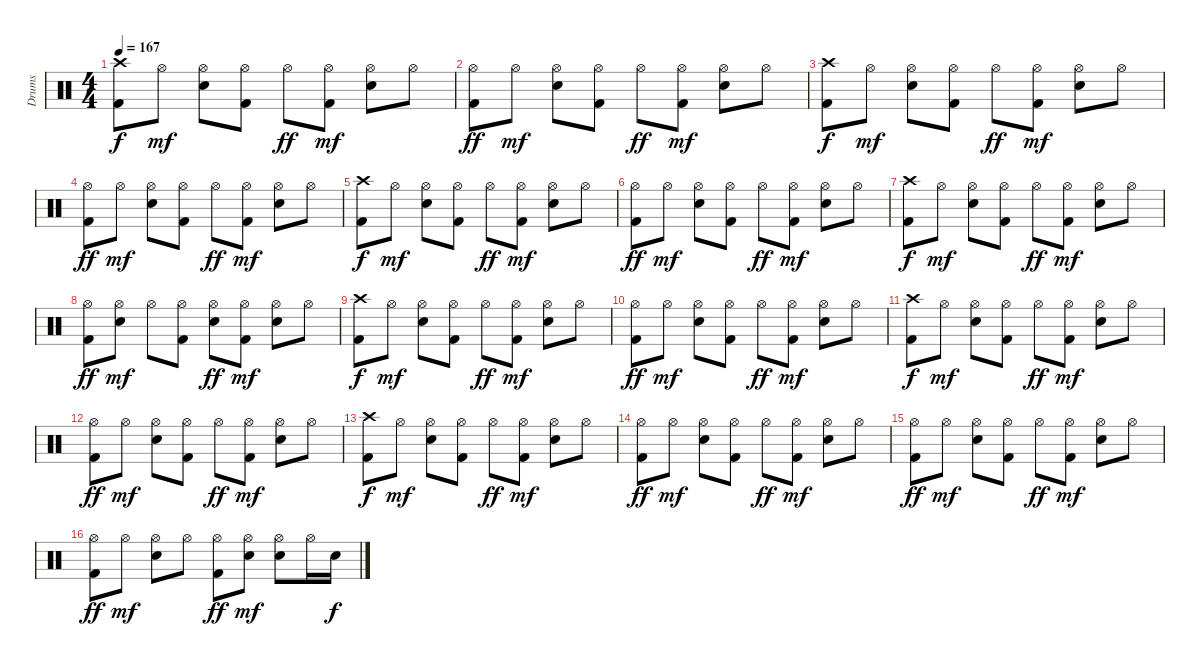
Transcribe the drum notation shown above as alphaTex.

\track ("Drums" "Drums") {instrument percussion}
\staff {score}
\articulation defaults
\ts (4 4)
\tempo 167
\clef neutral
\ks c
("Crash high (hit)" "Kick (hit) 2").8{dy f} "Hi-Hat (open)".8{dy mf} ("Hi-Hat (open)" "Electric Snare (hit)").8 ("Hi-Hat (open)" "Kick (hit) 2").8 "Hi-Hat (open)".8{dy ff} ("Hi-Hat (open)" "Kick (hit) 2").8{dy mf} ("Hi-Hat (open)" "Electric Snare (hit)").8 "Hi-Hat (open)".8 |
("Hi-Hat (open)" "Kick (hit) 2").8{dy ff} "Hi-Hat (open)".8{dy mf} ("Hi-Hat (open)" "Electric Snare (hit)").8 ("Hi-Hat (open)" "Kick (hit) 2").8 "Hi-Hat (open)".8{dy ff} ("Hi-Hat (open)" "Kick (hit) 2").8{dy mf} ("Hi-Hat (open)" "Electric Snare (hit)").8 "Hi-Hat (open)".8 |
("Crash high (hit)" "Kick (hit) 2").8{dy f} "Hi-Hat (open)".8{dy mf} ("Hi-Hat (open)" "Electric Snare (hit)").8 ("Hi-Hat (open)" "Kick (hit) 2").8 "Hi-Hat (open)".8{dy ff} ("Hi-Hat (open)" "Kick (hit) 2").8{dy mf} ("Hi-Hat (open)" "Electric Snare (hit)").8 "Hi-Hat (open)".8 |
("Hi-Hat (open)" "Kick (hit) 2").8{dy ff} "Hi-Hat (open)".8{dy mf} ("Hi-Hat (open)" "Electric Snare (hit)").8 ("Hi-Hat (open)" "Kick (hit) 2").8 "Hi-Hat (open)".8{dy ff} ("Hi-Hat (open)" "Kick (hit) 2").8{dy mf} ("Hi-Hat (open)" "Electric Snare (hit)").8 "Hi-Hat (open)".8 |
("Crash high (hit)" "Kick (hit) 2").8{dy f} "Hi-Hat (open)".8{dy mf} ("Hi-Hat (open)" "Electric Snare (hit)").8 ("Hi-Hat (open)" "Kick (hit) 2").8 "Hi-Hat (open)".8{dy ff} ("Hi-Hat (open)" "Kick (hit) 2").8{dy mf} ("Hi-Hat (open)" "Electric Snare (hit)").8 "Hi-Hat (open)".8 |
("Hi-Hat (open)" "Kick (hit) 2").8{dy ff} "Hi-Hat (open)".8{dy mf} ("Hi-Hat (open)" "Electric Snare (hit)").8 ("Hi-Hat (open)" "Kick (hit) 2").8 "Hi-Hat (open)".8{dy ff} ("Hi-Hat (open)" "Kick (hit) 2").8{dy mf} ("Hi-Hat (open)" "Electric Snare (hit)").8 "Hi-Hat (open)".8 |
("Crash high (hit)" "Kick (hit) 2").8{dy f} "Hi-Hat (open)".8{dy mf} ("Hi-Hat (open)" "Electric Snare (hit)").8 ("Hi-Hat (open)" "Kick (hit) 2").8 "Hi-Hat (open)".8{dy ff} ("Hi-Hat (open)" "Kick (hit) 2").8{dy mf} ("Hi-Hat (open)" "Electric Snare (hit)").8 "Hi-Hat (open)".8 |
("Hi-Hat (open)" "Kick (hit) 2").8{dy ff} ("Hi-Hat (open)" "Electric Snare (hit)").8{dy mf} "Hi-Hat (open)".8 ("Hi-Hat (open)" "Kick (hit) 2").8 ("Hi-Hat (open)" "Electric Snare (hit)").8{dy ff} ("Hi-Hat (open)" "Kick (hit) 2").8{dy mf} ("Hi-Hat (open)" "Electric Snare (hit)").8 "Hi-Hat (open)".8 |
("Crash high (hit)" "Kick (hit) 2").8{dy f} "Hi-Hat (open)".8{dy mf} ("Hi-Hat (open)" "Electric Snare (hit)").8 ("Hi-Hat (open)" "Kick (hit) 2").8 "Hi-Hat (open)".8{dy ff} ("Hi-Hat (open)" "Kick (hit) 2").8{dy mf} ("Hi-Hat (open)" "Electric Snare (hit)").8 "Hi-Hat (open)".8 |
("Hi-Hat (open)" "Kick (hit) 2").8{dy ff} "Hi-Hat (open)".8{dy mf} ("Hi-Hat (open)" "Electric Snare (hit)").8 ("Hi-Hat (open)" "Kick (hit) 2").8 "Hi-Hat (open)".8{dy ff} ("Hi-Hat (open)" "Kick (hit) 2").8{dy mf} ("Hi-Hat (open)" "Electric Snare (hit)").8 "Hi-Hat (open)".8 |
("Crash high (hit)" "Kick (hit) 2").8{dy f} "Hi-Hat (open)".8{dy mf} ("Hi-Hat (open)" "Electric Snare (hit)").8 ("Hi-Hat (open)" "Kick (hit) 2").8 "Hi-Hat (open)".8{dy ff} ("Hi-Hat (open)" "Kick (hit) 2").8{dy mf} ("Hi-Hat (open)" "Electric Snare (hit)").8 "Hi-Hat (open)".8 |
("Hi-Hat (open)" "Kick (hit) 2").8{dy ff} "Hi-Hat (open)".8{dy mf} ("Hi-Hat (open)" "Electric Snare (hit)").8 ("Hi-Hat (open)" "Kick (hit) 2").8 "Hi-Hat (open)".8{dy ff} ("Hi-Hat (open)" "Kick (hit) 2").8{dy mf} ("Hi-Hat (open)" "Electric Snare (hit)").8 "Hi-Hat (open)".8 |
("Crash high (hit)" "Kick (hit) 2").8{dy f} "Hi-Hat (open)".8{dy mf} ("Hi-Hat (open)" "Electric Snare (hit)").8 ("Hi-Hat (open)" "Kick (hit) 2").8 "Hi-Hat (open)".8{dy ff} ("Hi-Hat (open)" "Kick (hit) 2").8{dy mf} ("Hi-Hat (open)" "Electric Snare (hit)").8 "Hi-Hat (open)".8 |
("Hi-Hat (open)" "Kick (hit) 2").8{dy ff} "Hi-Hat (open)".8{dy mf} ("Hi-Hat (open)" "Electric Snare (hit)").8 ("Hi-Hat (open)" "Kick (hit) 2").8 "Hi-Hat (open)".8{dy ff} ("Hi-Hat (open)" "Kick (hit) 2").8{dy mf} ("Hi-Hat (open)" "Electric Snare (hit)").8 "Hi-Hat (open)".8 |
("Hi-Hat (open)" "Kick (hit) 2").8{dy ff} "Hi-Hat (open)".8{dy mf} ("Hi-Hat (open)" "Electric Snare (hit)").8 ("Hi-Hat (open)" "Kick (hit) 2").8 "Hi-Hat (open)".8{dy ff} ("Hi-Hat (open)" "Kick (hit) 2").8{dy mf} ("Hi-Hat (open)" "Electric Snare (hit)").8 "Hi-Hat (open)".8 |
("Hi-Hat (open)" "Kick (hit) 2").8{dy ff} "Hi-Hat (open)".8{dy mf} ("Hi-Hat (open)" "Electric Snare (hit)").8 "Hi-Hat (open)".8 ("Hi-Hat (open)" "Kick (hit) 2").8{dy ff} ("Hi-Hat (open)" "Electric Snare (hit)").8{dy mf} ("Hi-Hat (open)" "Electric Snare (hit)").8 "Hi-Hat (open)".16 "Electric Snare (hit)".16{dy f}
